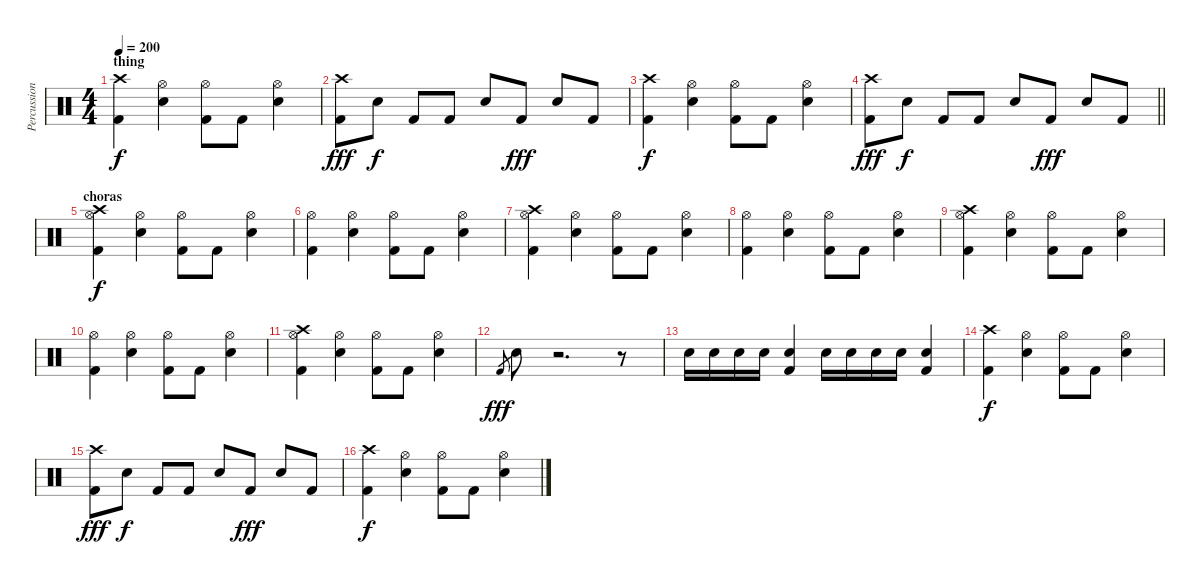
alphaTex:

\track ("Percussion" "Percussion") {instrument percussion}
\staff {score}
\articulation defaults
\ts (4 4)
\section ("" "thing")
\tempo 200
\clef neutral
\ks c
("Crash high (hit)" "Kick (hit) 2").4{dy f} ("Hi-Hat (open)" "Electric Snare (hit)").4 ("Hi-Hat (open)" "Kick (hit) 2").8 "Kick (hit) 2".8 ("Hi-Hat (open)" "Electric Snare (hit)").4 |
("Crash high (hit)" "Kick (hit) 2").8{dy fff} "Electric Snare (hit)".8{dy f} "Kick (hit) 2".8 "Kick (hit) 2".8 "Electric Snare (hit)".8 "Kick (hit) 2".8{dy fff} "Electric Snare (hit)".8 "Kick (hit) 2".8 |
("Crash high (hit)" "Kick (hit) 2").4{dy f} ("Hi-Hat (open)" "Electric Snare (hit)").4 ("Hi-Hat (open)" "Kick (hit) 2").8 "Kick (hit) 2".8 ("Hi-Hat (open)" "Electric Snare (hit)").4 |
\barLineRight lightlight
("Crash high (hit)" "Kick (hit) 2").8{dy fff} "Electric Snare (hit)".8{dy f} "Kick (hit) 2".8 "Kick (hit) 2".8 "Electric Snare (hit)".8 "Kick (hit) 2".8{dy fff} "Electric Snare (hit)".8 "Kick (hit) 2".8 |
\section ("" "choras")
("Crash high (hit)" "Hi-Hat (open)" "Kick (hit) 2").4{dy f} ("Hi-Hat (open)" "Electric Snare (hit)").4 ("Hi-Hat (open)" "Kick (hit) 2").8 "Kick (hit) 2".8 ("Hi-Hat (open)" "Electric Snare (hit)").4 |
("Hi-Hat (open)" "Kick (hit) 2").4 ("Hi-Hat (open)" "Electric Snare (hit)").4 ("Hi-Hat (open)" "Kick (hit) 2").8 "Kick (hit) 2".8 ("Hi-Hat (open)" "Electric Snare (hit)").4 |
("Crash high (hit)" "Hi-Hat (open)" "Kick (hit) 2").4 ("Hi-Hat (open)" "Electric Snare (hit)").4 ("Hi-Hat (open)" "Kick (hit) 2").8 "Kick (hit) 2".8 ("Hi-Hat (open)" "Electric Snare (hit)").4 |
("Hi-Hat (open)" "Kick (hit) 2").4 ("Hi-Hat (open)" "Electric Snare (hit)").4 ("Hi-Hat (open)" "Kick (hit) 2").8 "Kick (hit) 2".8 ("Hi-Hat (open)" "Electric Snare (hit)").4 |
("Crash high (hit)" "Hi-Hat (open)" "Kick (hit) 2").4 ("Hi-Hat (open)" "Electric Snare (hit)").4 ("Hi-Hat (open)" "Kick (hit) 2").8 "Kick (hit) 2".8 ("Hi-Hat (open)" "Electric Snare (hit)").4 |
("Hi-Hat (open)" "Kick (hit) 2").4 ("Hi-Hat (open)" "Electric Snare (hit)").4 ("Hi-Hat (open)" "Kick (hit) 2").8 "Kick (hit) 2".8 ("Hi-Hat (open)" "Electric Snare (hit)").4 |
("Crash high (hit)" "Hi-Hat (open)" "Kick (hit) 2").4 ("Hi-Hat (open)" "Electric Snare (hit)").4 ("Hi-Hat (open)" "Kick (hit) 2").8 "Kick (hit) 2".8 ("Hi-Hat (open)" "Electric Snare (hit)").4 |
"Kick (hit) 2".8{gr dy fff} "Electric Snare (hit)".8 r.2{d} r.8 |
"Electric Snare (hit)".16 "Electric Snare (hit)".16 "Electric Snare (hit)".16 "Electric Snare (hit)".16 ("Kick (hit) 2" "Electric Snare (hit)").4 "Electric Snare (hit)".16 "Electric Snare (hit)".16 "Electric Snare (hit)".16 "Electric Snare (hit)".16 ("Kick (hit) 2" "Electric Snare (hit)").4 |
("Crash high (hit)" "Kick (hit) 2").4{dy f} ("Hi-Hat (open)" "Electric Snare (hit)").4 ("Hi-Hat (open)" "Kick (hit) 2").8 "Kick (hit) 2".8 ("Hi-Hat (open)" "Electric Snare (hit)").4 |
("Crash high (hit)" "Kick (hit) 2").8{dy fff} "Electric Snare (hit)".8{dy f} "Kick (hit) 2".8 "Kick (hit) 2".8 "Electric Snare (hit)".8 "Kick (hit) 2".8{dy fff} "Electric Snare (hit)".8 "Kick (hit) 2".8 |
("Crash high (hit)" "Kick (hit) 2").4{dy f} ("Hi-Hat (open)" "Electric Snare (hit)").4 ("Hi-Hat (open)" "Kick (hit) 2").8 "Kick (hit) 2".8 ("Hi-Hat (open)" "Electric Snare (hit)").4
